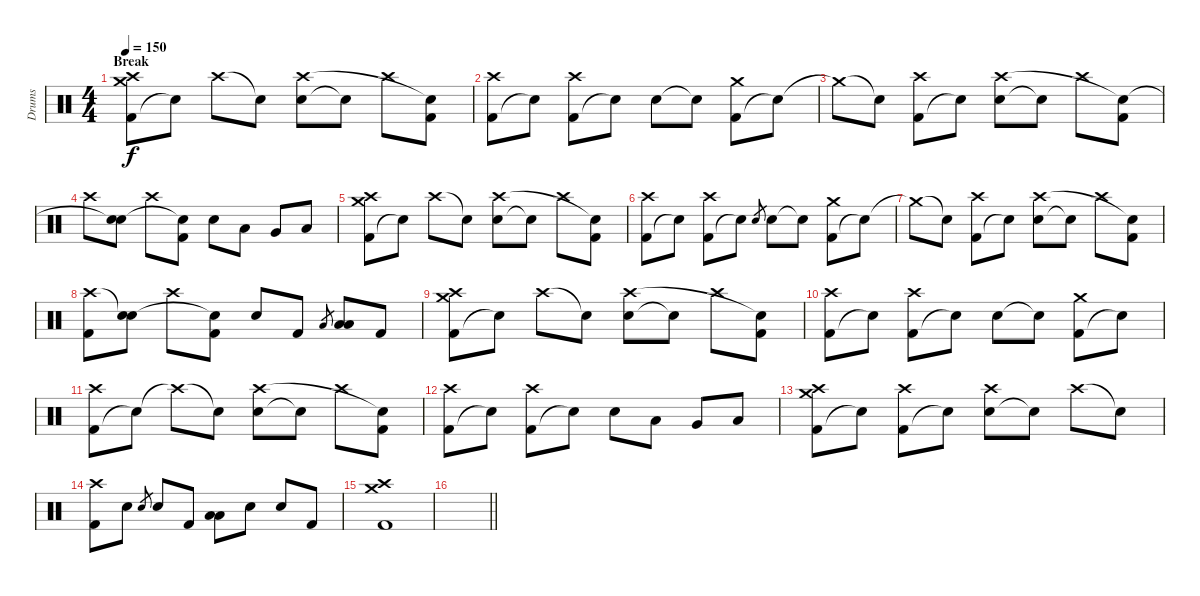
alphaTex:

\track ("Drums" "Drums") {instrument percussion}
\staff {score}
\articulation defaults
\ts (4 4)
\section ("" "Break")
\tempo 150
\clef neutral
\ks c
("Kick (hit) 2" "Crash medium (hit)" "Crash high (hit)").8{dy f} "Snare (hit)"{t}.8 "Crash high (hit)".8 "Snare (hit)"{t}.8 ("Electric Snare (hit)" "Crash high (hit)").8 "Snare (hit)"{t}.8 "Crash high (hit)".8 ("Kick (hit) 2" "Snare (hit)"{t}).8 |
("Kick (hit) 2" "Crash high (hit)").8 "Snare (hit)"{t}.8 ("Kick (hit) 2" "Crash high (hit)").8 "Snare (hit)"{t}.8 "Electric Snare (hit)".8 "Snare (hit)"{t}.8 ("Kick (hit) 2" "Crash medium (hit)").8 "Snare (hit)"{t}.8 |
"Crash medium (hit)"{t}.8 "Snare (hit)"{t}.8 ("Kick (hit) 2" "Crash high (hit)").8 "Snare (hit)"{t}.8 ("Electric Snare (hit)" "Crash high (hit)").8 "Snare (hit)"{t}.8 "Crash high (hit)".8 ("Kick (hit) 2" "Snare (hit)"{t}).8 |
"Crash high (hit)".8 ("Electric Snare (hit)" "Snare (hit)"{t}).8 "Crash high (hit)".8 ("Kick (hit) 2" "Snare (hit)"{t}).8 "Electric Snare (hit)".8 "Low Tom (hit)".8 "Very Low Tom (hit)".8 "Low Floor Tom (hit)".8 |
("Kick (hit) 2" "Crash medium (hit)" "Crash high (hit)").8 "Snare (hit)"{t}.8 "Crash high (hit)".8 "Snare (hit)"{t}.8 ("Electric Snare (hit)" "Crash high (hit)").8 "Snare (hit)"{t}.8 "Crash high (hit)".8 ("Kick (hit) 2" "Snare (hit)"{t}).8 |
("Kick (hit) 2" "Crash high (hit)").8 "Snare (hit)"{t}.8 ("Kick (hit) 2" "Crash high (hit)").8 "Snare (hit)"{t}.8 "Electric Snare (hit)".8{gr} "Electric Snare (hit)".8 "Snare (hit)"{t}.8 ("Kick (hit) 2" "Crash medium (hit)").8 "Snare (hit)"{t}.8 |
"Crash medium (hit)"{t}.8 "Snare (hit)"{t}.8 ("Kick (hit) 2" "Crash high (hit)").8 "Snare (hit)"{t}.8 ("Electric Snare (hit)" "Crash high (hit)").8 "Snare (hit)"{t}.8 "Crash high (hit)".8 ("Kick (hit) 2" "Snare (hit)"{t}).8 |
("Kick (hit) 2" "Crash high (hit)").8 ("Electric Snare (hit)" "Snare (hit)"{t}).8 "Crash high (hit)".8 ("Kick (hit) 2" "Snare (hit)"{t}).8 "Electric Snare (hit)".8 "Kick (hit) 2".8 "Low Tom (hit)".8{gr} ("Low Tom (hit)" "Low Floor Tom (hit)").8 "Kick (hit) 2".8 |
("Kick (hit) 2" "Crash medium (hit)" "Crash high (hit)").8 "Snare (hit)"{t}.8 "Crash high (hit)".8 "Snare (hit)"{t}.8 ("Electric Snare (hit)" "Crash high (hit)").8 "Snare (hit)"{t}.8 "Crash high (hit)".8 ("Kick (hit) 2" "Snare (hit)"{t}).8 |
("Kick (hit) 2" "Crash high (hit)").8 "Snare (hit)"{t}.8 ("Kick (hit) 2" "Crash high (hit)").8 "Snare (hit)"{t}.8 "Electric Snare (hit)".8 "Snare (hit)"{t}.8 ("Kick (hit) 2" "Crash medium (hit)").8 "Snare (hit)"{t}.8 |
("Kick (hit) 2" "Crash high (hit)").8 "Snare (hit)"{t}.8 "Crash high (hit)"{t}.8 "Snare (hit)"{t}.8 ("Electric Snare (hit)" "Crash high (hit)").8 "Snare (hit)"{t}.8 "Crash high (hit)".8 ("Kick (hit) 2" "Snare (hit)"{t}).8 |
("Kick (hit) 2" "Crash high (hit)").8 "Snare (hit)"{t}.8 ("Kick (hit) 2" "Crash high (hit)").8 "Snare (hit)"{t}.8 "Electric Snare (hit)".8 "Low Tom (hit)".8 "Very Low Tom (hit)".8 "Low Floor Tom (hit)".8 |
("Kick (hit) 2" "Crash medium (hit)" "Crash high (hit)").8 "Snare (hit)"{t}.8 ("Kick (hit) 2" "Crash high (hit)").8 "Snare (hit)"{t}.8 ("Electric Snare (hit)" "Crash high (hit)").8 "Snare (hit)"{t}.8 "Crash high (hit)".8 "Snare (hit)"{t}.8 |
("Kick (hit) 2" "Crash high (hit)").8 "Electric Snare (hit)".8 "Electric Snare (hit)".8{gr} "Electric Snare (hit)".8 "Kick (hit) 2".8 ("Low Tom (hit)" "Low Floor Tom (hit)").8 "Electric Snare (hit)".8 "Electric Snare (hit)".8 "Kick (hit) 2".8 |
("Kick (hit) 2" "Crash medium (hit)" "Crash high (hit)").1 |
\barLineRight lightlight
